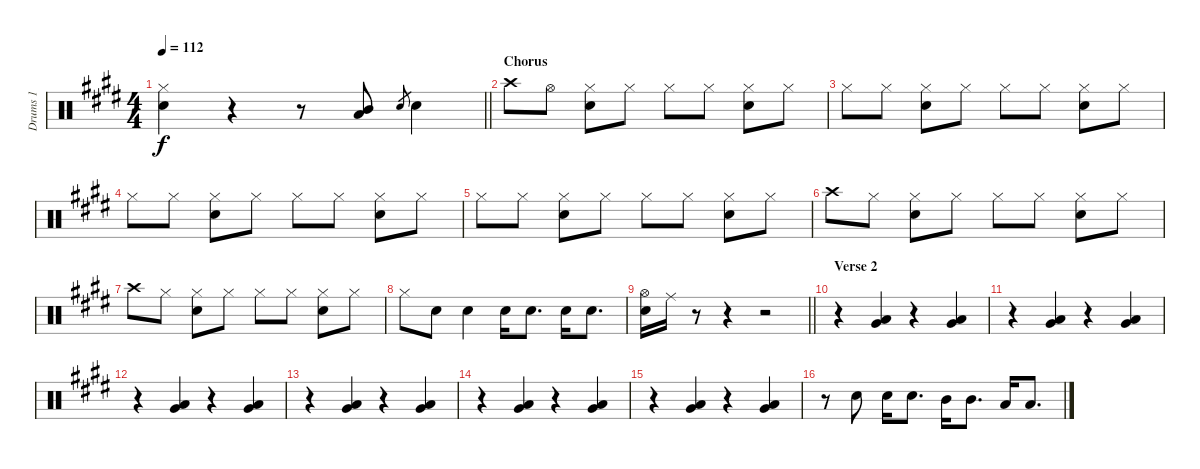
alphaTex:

\track ("Drums 1" "Drums 1") {instrument percussion}
\staff {score}
\articulation defaults
\ts (4 4)
\tempo 112
\clef neutral
\barLineRight lightlight
\ks e
("Hi-Hat (closed)" "Snare (hit) 2").4{dy f} r.4 r.8 ("Mid Tom (hit)" "Low Tom (hit)").8 "Snare (hit) 2".8{gr} "Snare (hit) 2".4 |
\section ("" "Chorus")
"Crash high (hit)".8 "Hi-Hat (open)".8 ("Hi-Hat (closed)" "Snare (hit) 2").8 "Hi-Hat (closed)".8 "Hi-Hat (closed)".8 "Hi-Hat (closed)".8 ("Hi-Hat (closed)" "Snare (hit) 2").8 "Hi-Hat (closed)".8 |
"Hi-Hat (closed)".8 "Hi-Hat (closed)".8 ("Hi-Hat (closed)" "Snare (hit) 2").8 "Hi-Hat (closed)".8 "Hi-Hat (closed)".8 "Hi-Hat (closed)".8 ("Hi-Hat (closed)" "Snare (hit) 2").8 "Hi-Hat (closed)".8 |
"Hi-Hat (closed)".8 "Hi-Hat (closed)".8 ("Hi-Hat (closed)" "Snare (hit) 2").8 "Hi-Hat (closed)".8 "Hi-Hat (closed)".8 "Hi-Hat (closed)".8 ("Hi-Hat (closed)" "Snare (hit) 2").8 "Hi-Hat (closed)".8 |
"Hi-Hat (closed)".8 "Hi-Hat (closed)".8 ("Hi-Hat (closed)" "Snare (hit) 2").8 "Hi-Hat (closed)".8 "Hi-Hat (closed)".8 "Hi-Hat (closed)".8 ("Hi-Hat (closed)" "Snare (hit) 2").8 "Hi-Hat (closed)".8 |
"Crash high (hit)".8 "Hi-Hat (closed)".8 ("Hi-Hat (closed)" "Snare (hit) 2").8 "Hi-Hat (closed)".8 "Hi-Hat (closed)".8 "Hi-Hat (closed)".8 ("Hi-Hat (closed)" "Snare (hit) 2").8 "Hi-Hat (closed)".8 |
"Crash high (hit)".8 "Hi-Hat (closed)".8 ("Hi-Hat (closed)" "Snare (hit) 2").8 "Hi-Hat (closed)".8 "Hi-Hat (closed)".8 "Hi-Hat (closed)".8 ("Hi-Hat (closed)" "Snare (hit) 2").8 "Hi-Hat (closed)".8 |
"Hi-Hat (closed)".8 "Snare (hit) 2".8 "Snare (hit) 2".4 "Snare (hit) 2".16 "Snare (hit) 2".8{d} "Snare (hit) 2".16 "Snare (hit) 2".8{d} |
\barLineRight lightlight
("Hi-Hat (open)" "Snare (hit) 2").16 "Ride (middle)".16 r.8 r.4 r.2 |
\section ("" "Verse 2")
r.4 ("Low Tom (hit)" "Very Low Tom (hit)").4 r.4 ("Low Tom (hit)" "Very Low Tom (hit)").4 |
r.4 ("Low Tom (hit)" "Very Low Tom (hit)").4 r.4 ("Low Tom (hit)" "Very Low Tom (hit)").4 |
r.4 ("Low Tom (hit)" "Very Low Tom (hit)").4 r.4 ("Low Tom (hit)" "Very Low Tom (hit)").4 |
r.4 ("Low Tom (hit)" "Very Low Tom (hit)").4 r.4 ("Low Tom (hit)" "Very Low Tom (hit)").4 |
r.4 ("Low Tom (hit)" "Very Low Tom (hit)").4 r.4 ("Low Tom (hit)" "Very Low Tom (hit)").4 |
r.4 ("Low Tom (hit)" "Very Low Tom (hit)").4 r.4 ("Low Tom (hit)" "Very Low Tom (hit)").4 |
r.8 "Snare (hit) 2".8 "Snare (hit) 2".16 "Snare (hit) 2".8{d} "Mid Tom (hit)".16 "Mid Tom (hit)".8{d} "Low Tom (hit)".16 "Low Tom (hit)".8{d}
